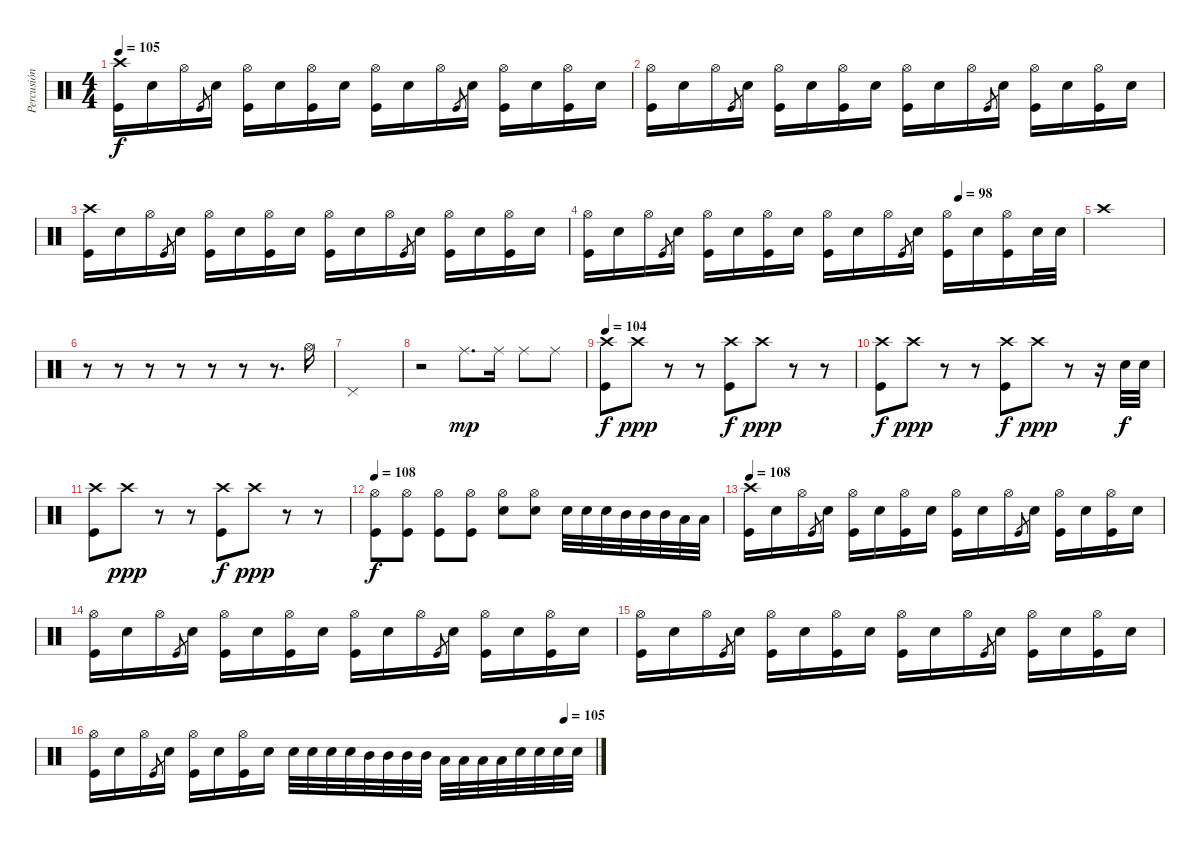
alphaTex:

\track ("Percusión" "Percusión") {instrument percussion}
\staff {score}
\articulation defaults
\ts (4 4)
\tempo 105
\clef neutral
\ks c
("Kick (hit)" "Crash high (hit)").16{dy f} "Snare (hit) 2".16 "Hi-Hat (open)".16 "Kick (hit)".8{gr} "Snare (hit) 2".16 ("Kick (hit)" "Hi-Hat (open)").16 "Snare (hit) 2".16 ("Kick (hit)" "Hi-Hat (open)").16 "Snare (hit) 2".16 ("Kick (hit)" "Hi-Hat (open)").16 "Snare (hit) 2".16 "Hi-Hat (open)".16 "Kick (hit)".8{gr} "Snare (hit) 2".16 ("Kick (hit)" "Hi-Hat (open)").16 "Snare (hit) 2".16 ("Kick (hit)" "Hi-Hat (open)").16 "Snare (hit) 2".16 |
("Kick (hit)" "Hi-Hat (open)").16 "Snare (hit) 2".16 "Hi-Hat (open)".16 "Kick (hit)".8{gr} "Snare (hit) 2".16 ("Kick (hit)" "Hi-Hat (open)").16 "Snare (hit) 2".16 ("Kick (hit)" "Hi-Hat (open)").16 "Snare (hit) 2".16 ("Kick (hit)" "Hi-Hat (open)").16 "Snare (hit) 2".16 "Hi-Hat (open)".16 "Kick (hit)".8{gr} "Snare (hit) 2".16 ("Kick (hit)" "Hi-Hat (open)").16 "Snare (hit) 2".16 ("Kick (hit)" "Hi-Hat (open)").16 "Snare (hit) 2".16 |
("Kick (hit)" "Crash high (hit)").16 "Snare (hit) 2".16 "Hi-Hat (open)".16 "Kick (hit)".8{gr} "Snare (hit) 2".16 ("Kick (hit)" "Hi-Hat (open)").16 "Snare (hit) 2".16 ("Kick (hit)" "Hi-Hat (open)").16 "Snare (hit) 2".16 ("Kick (hit)" "Hi-Hat (open)").16 "Snare (hit) 2".16 "Hi-Hat (open)".16 "Kick (hit)".8{gr} "Snare (hit) 2".16 ("Kick (hit)" "Hi-Hat (open)").16 "Snare (hit) 2".16 ("Kick (hit)" "Hi-Hat (open)").16 "Snare (hit) 2".16 |
\tempo (98 0.75)
("Kick (hit)" "Hi-Hat (open)").16 "Snare (hit) 2".16 "Hi-Hat (open)".16 "Kick (hit)".8{gr} "Snare (hit) 2".16 ("Kick (hit)" "Hi-Hat (open)").16 "Snare (hit) 2".16 ("Kick (hit)" "Hi-Hat (open)").16 "Snare (hit) 2".16 ("Kick (hit)" "Hi-Hat (open)").16 "Snare (hit) 2".16 "Hi-Hat (open)".16 "Kick (hit)".8{gr} "Snare (hit) 2".16 ("Kick (hit)" "Hi-Hat (open)").16 "Snare (hit) 2".16 ("Kick (hit)" "Hi-Hat (open)").16 "Snare (hit) 2".32 "Snare (hit) 2".32 |
"Crash high (hit)".1 |
r.8 r.8 r.8 r.8 r.8 r.8 r.8{d} "Hi-Hat (open)".16 |
"Pedal Hi-Hat (hit)".1 |
r.2 "Ride (middle)".8{d dy mp} "Ride (middle)".16 "Ride (middle)".8 "Ride (middle)".8 |
\tempo 104
("Kick (hit)" "Crash high (hit)").8{dy f} "Crash high (hit)".8{dy ppp} r.8 r.8 ("Kick (hit)" "Crash high (hit)").8{dy f} "Crash high (hit)".8{dy ppp} r.8 r.8 |
("Kick (hit)" "Crash high (hit)").8{dy f} "Crash high (hit)".8{dy ppp} r.8 r.8 ("Kick (hit)" "Crash high (hit)").8{dy f} "Crash high (hit)".8{dy ppp} r.8 r.16 "Snare (hit) 2".32{dy f} "Snare (hit) 2".32 |
("Kick (hit)" "Crash high (hit)").8 "Crash high (hit)".8{dy ppp} r.8 r.8 ("Kick (hit)" "Crash high (hit)").8{dy f} "Crash high (hit)".8{dy ppp} r.8 r.8 |
\tempo 108
("Kick (hit)" "Hi-Hat (open)").8{dy f} ("Kick (hit)" "Hi-Hat (open)").8 ("Kick (hit)" "Hi-Hat (open)").8 ("Kick (hit)" "Hi-Hat (open)").8 ("Snare (hit) 2" "Hi-Hat (open)").8 ("Snare (hit) 2" "Hi-Hat (open)").8 "Snare (hit) 2".32 "Snare (hit) 2".32 "Snare (hit) 2".32 "Mid Tom (hit)".32 "Mid Tom (hit)".32 "Mid Tom (hit)".32 "Low Tom (hit)".32 "Low Tom (hit)".32 |
\tempo 108
("Kick (hit)" "Crash high (hit)").16 "Snare (hit) 2".16 "Hi-Hat (open)".16 "Kick (hit)".8{gr} "Snare (hit) 2".16 ("Kick (hit)" "Hi-Hat (open)").16 "Snare (hit) 2".16 ("Kick (hit)" "Hi-Hat (open)").16 "Snare (hit) 2".16 ("Kick (hit)" "Hi-Hat (open)").16 "Snare (hit) 2".16 "Hi-Hat (open)".16 "Kick (hit)".8{gr} "Snare (hit) 2".16 ("Kick (hit)" "Hi-Hat (open)").16 "Snare (hit) 2".16 ("Kick (hit)" "Hi-Hat (open)").16 "Snare (hit) 2".16 |
("Kick (hit)" "Hi-Hat (open)").16 "Snare (hit) 2".16 "Hi-Hat (open)".16 "Kick (hit)".8{gr} "Snare (hit) 2".16 ("Kick (hit)" "Hi-Hat (open)").16 "Snare (hit) 2".16 ("Kick (hit)" "Hi-Hat (open)").16 "Snare (hit) 2".16 ("Kick (hit)" "Hi-Hat (open)").16 "Snare (hit) 2".16 "Hi-Hat (open)".16 "Kick (hit)".8{gr} "Snare (hit) 2".16 ("Kick (hit)" "Hi-Hat (open)").16 "Snare (hit) 2".16 ("Kick (hit)" "Hi-Hat (open)").16 "Snare (hit) 2".16 |
("Kick (hit)" "Hi-Hat (open)").16 "Snare (hit) 2".16 "Hi-Hat (open)".16 "Kick (hit)".8{gr} "Snare (hit) 2".16 ("Kick (hit)" "Hi-Hat (open)").16 "Snare (hit) 2".16 ("Kick (hit)" "Hi-Hat (open)").16 "Snare (hit) 2".16 ("Kick (hit)" "Hi-Hat (open)").16 "Snare (hit) 2".16 "Hi-Hat (open)".16 "Kick (hit)".8{gr} "Snare (hit) 2".16 ("Kick (hit)" "Hi-Hat (open)").16 "Snare (hit) 2".16 ("Kick (hit)" "Hi-Hat (open)").16 "Snare (hit) 2".16 |
\tempo (105 0.9375)
("Kick (hit)" "Hi-Hat (open)").16 "Snare (hit) 2".16 "Hi-Hat (open)".16 "Kick (hit)".8{gr} "Snare (hit) 2".16 ("Kick (hit)" "Hi-Hat (open)").16 "Snare (hit) 2".16 ("Kick (hit)" "Hi-Hat (open)").16 "Snare (hit) 2".16 "Snare (hit) 2".32 "Snare (hit) 2".32 "Snare (hit) 2".32 "Snare (hit) 2".32 "Mid Tom (hit)".32 "Mid Tom (hit)".32 "Mid Tom (hit)".32 "Mid Tom (hit)".32 "Low Tom (hit)".32 "Low Tom (hit)".32 "Low Tom (hit)".32 "Low Tom (hit)".32 "Snare (hit) 2".32 "Snare (hit) 2".32 "Snare (hit) 2".32 "Snare (hit) 2".32
